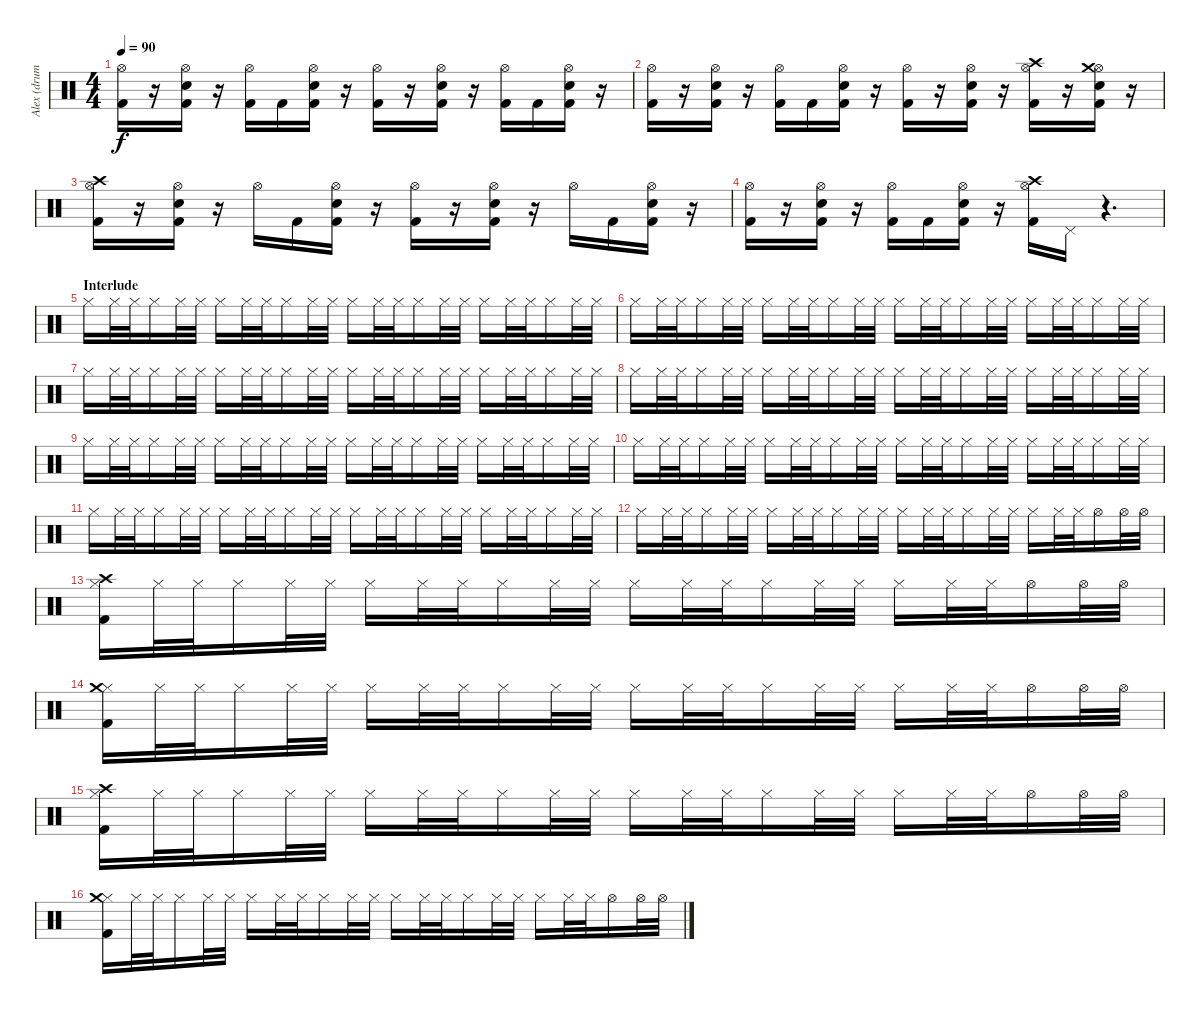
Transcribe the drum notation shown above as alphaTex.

\track ("Alex (drums)" "Alex (drum") {instrument percussion}
\staff {score}
\articulation defaults
\ts (4 4)
\tempo 90
\clef neutral
\ks c
("Hi-Hat (open)" "Kick (hit) 2").16{dy f} r.16 ("Hi-Hat (open)" "Snare (hit) 2" "Kick (hit) 2").16 r.16 ("Hi-Hat (open)" "Kick (hit) 2").16 "Kick (hit) 2".16 ("Hi-Hat (open)" "Snare (hit) 2" "Kick (hit) 2").16 r.16 ("Hi-Hat (open)" "Kick (hit) 2").16 r.16 ("Hi-Hat (open)" "Snare (hit) 2" "Kick (hit) 2").16 r.16 ("Hi-Hat (open)" "Kick (hit) 2").16 "Kick (hit) 2".16 ("Hi-Hat (open)" "Snare (hit) 2" "Kick (hit) 2").16 r.16 |
("Hi-Hat (open)" "Kick (hit) 2").16 r.16 ("Hi-Hat (open)" "Snare (hit) 2" "Kick (hit) 2").16 r.16 ("Hi-Hat (open)" "Kick (hit) 2").16 "Kick (hit) 2".16 ("Hi-Hat (open)" "Snare (hit) 2" "Kick (hit) 2").16 r.16 ("Hi-Hat (open)" "Kick (hit) 2").16 r.16 ("Hi-Hat (open)" "Snare (hit) 2" "Kick (hit) 2").16 r.16 ("Hi-Hat (open)" "Kick (hit) 2" "Crash high (hit)").16 r.16 ("Hi-Hat (open)" "Snare (hit) 2" "Kick (hit) 2" "Crash medium (hit)").16 r.16 |
("Hi-Hat (open)" "Kick (hit) 2" "Crash high (hit)").16 r.16 ("Hi-Hat (open)" "Snare (hit) 2" "Kick (hit) 2").16 r.16 "Hi-Hat (open)".16 "Kick (hit) 2".16 ("Hi-Hat (open)" "Snare (hit) 2" "Kick (hit) 2").16 r.16 ("Hi-Hat (open)" "Kick (hit) 2").16 r.16 ("Hi-Hat (open)" "Snare (hit) 2" "Kick (hit) 2").16 r.16 "Hi-Hat (open)".16 "Kick (hit) 2".16 ("Hi-Hat (open)" "Snare (hit) 2" "Kick (hit) 2").16 r.16 |
("Hi-Hat (open)" "Kick (hit) 2").16 r.16 ("Hi-Hat (open)" "Snare (hit) 2" "Kick (hit) 2").16 r.16 ("Hi-Hat (open)" "Kick (hit) 2").16 "Kick (hit) 2".16 ("Hi-Hat (open)" "Snare (hit) 2" "Kick (hit) 2").16 r.16 ("Hi-Hat (open)" "Kick (hit) 2" "Crash high (hit)").16 "Pedal Hi-Hat (hit)".16 r.4{d} |
\section ("" "Interlude")
"Hi-Hat (closed)".16 "Hi-Hat (closed)".32 "Hi-Hat (closed)".32 "Hi-Hat (closed)".16 "Hi-Hat (closed)".32 "Hi-Hat (closed)".32 "Hi-Hat (closed)".16 "Hi-Hat (closed)".32 "Hi-Hat (closed)".32 "Hi-Hat (closed)".16 "Hi-Hat (closed)".32 "Hi-Hat (closed)".32 "Hi-Hat (closed)".16 "Hi-Hat (closed)".32 "Hi-Hat (closed)".32 "Hi-Hat (closed)".16 "Hi-Hat (closed)".32 "Hi-Hat (closed)".32 "Hi-Hat (closed)".16 "Hi-Hat (closed)".32 "Hi-Hat (closed)".32 "Hi-Hat (closed)".16 "Hi-Hat (closed)".32 "Hi-Hat (closed)".32 |
"Hi-Hat (closed)".16 "Hi-Hat (closed)".32 "Hi-Hat (closed)".32 "Hi-Hat (closed)".16 "Hi-Hat (closed)".32 "Hi-Hat (closed)".32 "Hi-Hat (closed)".16 "Hi-Hat (closed)".32 "Hi-Hat (closed)".32 "Hi-Hat (closed)".16 "Hi-Hat (closed)".32 "Hi-Hat (closed)".32 "Hi-Hat (closed)".16 "Hi-Hat (closed)".32 "Hi-Hat (closed)".32 "Hi-Hat (closed)".16 "Hi-Hat (closed)".32 "Hi-Hat (closed)".32 "Hi-Hat (closed)".16 "Hi-Hat (closed)".32 "Hi-Hat (closed)".32 "Hi-Hat (closed)".16 "Hi-Hat (closed)".32 "Hi-Hat (closed)".32 |
"Hi-Hat (closed)".16 "Hi-Hat (closed)".32 "Hi-Hat (closed)".32 "Hi-Hat (closed)".16 "Hi-Hat (closed)".32 "Hi-Hat (closed)".32 "Hi-Hat (closed)".16 "Hi-Hat (closed)".32 "Hi-Hat (closed)".32 "Hi-Hat (closed)".16 "Hi-Hat (closed)".32 "Hi-Hat (closed)".32 "Hi-Hat (closed)".16 "Hi-Hat (closed)".32 "Hi-Hat (closed)".32 "Hi-Hat (closed)".16 "Hi-Hat (closed)".32 "Hi-Hat (closed)".32 "Hi-Hat (closed)".16 "Hi-Hat (closed)".32 "Hi-Hat (closed)".32 "Hi-Hat (closed)".16 "Hi-Hat (closed)".32 "Hi-Hat (closed)".32 |
"Hi-Hat (closed)".16 "Hi-Hat (closed)".32 "Hi-Hat (closed)".32 "Hi-Hat (closed)".16 "Hi-Hat (closed)".32 "Hi-Hat (closed)".32 "Hi-Hat (closed)".16 "Hi-Hat (closed)".32 "Hi-Hat (closed)".32 "Hi-Hat (closed)".16 "Hi-Hat (closed)".32 "Hi-Hat (closed)".32 "Hi-Hat (closed)".16 "Hi-Hat (closed)".32 "Hi-Hat (closed)".32 "Hi-Hat (closed)".16 "Hi-Hat (closed)".32 "Hi-Hat (closed)".32 "Hi-Hat (closed)".16 "Hi-Hat (closed)".32 "Hi-Hat (closed)".32 "Hi-Hat (closed)".16 "Hi-Hat (closed)".32 "Hi-Hat (closed)".32 |
"Hi-Hat (closed)".16 "Hi-Hat (closed)".32 "Hi-Hat (closed)".32 "Hi-Hat (closed)".16 "Hi-Hat (closed)".32 "Hi-Hat (closed)".32 "Hi-Hat (closed)".16 "Hi-Hat (closed)".32 "Hi-Hat (closed)".32 "Hi-Hat (closed)".16 "Hi-Hat (closed)".32 "Hi-Hat (closed)".32 "Hi-Hat (closed)".16 "Hi-Hat (closed)".32 "Hi-Hat (closed)".32 "Hi-Hat (closed)".16 "Hi-Hat (closed)".32 "Hi-Hat (closed)".32 "Hi-Hat (closed)".16 "Hi-Hat (closed)".32 "Hi-Hat (closed)".32 "Hi-Hat (closed)".16 "Hi-Hat (closed)".32 "Hi-Hat (closed)".32 |
"Hi-Hat (closed)".16 "Hi-Hat (closed)".32 "Hi-Hat (closed)".32 "Hi-Hat (closed)".16 "Hi-Hat (closed)".32 "Hi-Hat (closed)".32 "Hi-Hat (closed)".16 "Hi-Hat (closed)".32 "Hi-Hat (closed)".32 "Hi-Hat (closed)".16 "Hi-Hat (closed)".32 "Hi-Hat (closed)".32 "Hi-Hat (closed)".16 "Hi-Hat (closed)".32 "Hi-Hat (closed)".32 "Hi-Hat (closed)".16 "Hi-Hat (closed)".32 "Hi-Hat (closed)".32 "Hi-Hat (closed)".16 "Hi-Hat (closed)".32 "Hi-Hat (closed)".32 "Hi-Hat (closed)".16 "Hi-Hat (closed)".32 "Hi-Hat (closed)".32 |
"Hi-Hat (closed)".16 "Hi-Hat (closed)".32 "Hi-Hat (closed)".32 "Hi-Hat (closed)".16 "Hi-Hat (closed)".32 "Hi-Hat (closed)".32 "Hi-Hat (closed)".16 "Hi-Hat (closed)".32 "Hi-Hat (closed)".32 "Hi-Hat (closed)".16 "Hi-Hat (closed)".32 "Hi-Hat (closed)".32 "Hi-Hat (closed)".16 "Hi-Hat (closed)".32 "Hi-Hat (closed)".32 "Hi-Hat (closed)".16 "Hi-Hat (closed)".32 "Hi-Hat (closed)".32 "Hi-Hat (closed)".16 "Hi-Hat (closed)".32 "Hi-Hat (closed)".32 "Hi-Hat (closed)".16 "Hi-Hat (closed)".32 "Hi-Hat (closed)".32 |
"Hi-Hat (closed)".16 "Hi-Hat (closed)".32 "Hi-Hat (closed)".32 "Hi-Hat (closed)".16 "Hi-Hat (closed)".32 "Hi-Hat (closed)".32 "Hi-Hat (closed)".16 "Hi-Hat (closed)".32 "Hi-Hat (closed)".32 "Hi-Hat (closed)".16 "Hi-Hat (closed)".32 "Hi-Hat (closed)".32 "Hi-Hat (closed)".16 "Hi-Hat (closed)".32 "Hi-Hat (closed)".32 "Hi-Hat (closed)".16 "Hi-Hat (closed)".32 "Hi-Hat (closed)".32 "Hi-Hat (closed)".16 "Hi-Hat (closed)".32 "Hi-Hat (closed)".32 "Hi-Hat (open)".16 "Hi-Hat (open)".32 "Hi-Hat (open)".32 |
("Hi-Hat (closed)" "Kick (hit) 2" "Crash high (hit)").16 "Hi-Hat (closed)".32 "Hi-Hat (closed)".32 "Hi-Hat (closed)".16 "Hi-Hat (closed)".32 "Hi-Hat (closed)".32 "Hi-Hat (closed)".16 "Hi-Hat (closed)".32 "Hi-Hat (closed)".32 "Hi-Hat (closed)".16 "Hi-Hat (closed)".32 "Hi-Hat (closed)".32 "Hi-Hat (closed)".16 "Hi-Hat (closed)".32 "Hi-Hat (closed)".32 "Hi-Hat (closed)".16 "Hi-Hat (closed)".32 "Hi-Hat (closed)".32 "Hi-Hat (closed)".16 "Hi-Hat (closed)".32 "Hi-Hat (closed)".32 "Hi-Hat (open)".16 "Hi-Hat (open)".32 "Hi-Hat (open)".32 |
("Hi-Hat (closed)" "Kick (hit) 2" "Crash medium (hit)").16 "Hi-Hat (closed)".32 "Hi-Hat (closed)".32 "Hi-Hat (closed)".16 "Hi-Hat (closed)".32 "Hi-Hat (closed)".32 "Hi-Hat (closed)".16 "Hi-Hat (closed)".32 "Hi-Hat (closed)".32 "Hi-Hat (closed)".16 "Hi-Hat (closed)".32 "Hi-Hat (closed)".32 "Hi-Hat (closed)".16 "Hi-Hat (closed)".32 "Hi-Hat (closed)".32 "Hi-Hat (closed)".16 "Hi-Hat (closed)".32 "Hi-Hat (closed)".32 "Hi-Hat (closed)".16 "Hi-Hat (closed)".32 "Hi-Hat (closed)".32 "Hi-Hat (open)".16 "Hi-Hat (open)".32 "Hi-Hat (open)".32 |
("Hi-Hat (closed)" "Kick (hit) 2" "Crash high (hit)").16 "Hi-Hat (closed)".32 "Hi-Hat (closed)".32 "Hi-Hat (closed)".16 "Hi-Hat (closed)".32 "Hi-Hat (closed)".32 "Hi-Hat (closed)".16 "Hi-Hat (closed)".32 "Hi-Hat (closed)".32 "Hi-Hat (closed)".16 "Hi-Hat (closed)".32 "Hi-Hat (closed)".32 "Hi-Hat (closed)".16 "Hi-Hat (closed)".32 "Hi-Hat (closed)".32 "Hi-Hat (closed)".16 "Hi-Hat (closed)".32 "Hi-Hat (closed)".32 "Hi-Hat (closed)".16 "Hi-Hat (closed)".32 "Hi-Hat (closed)".32 "Hi-Hat (open)".16 "Hi-Hat (open)".32 "Hi-Hat (open)".32 |
("Hi-Hat (closed)" "Kick (hit) 2" "Crash medium (hit)").16 "Hi-Hat (closed)".32 "Hi-Hat (closed)".32 "Hi-Hat (closed)".16 "Hi-Hat (closed)".32 "Hi-Hat (closed)".32 "Hi-Hat (closed)".16 "Hi-Hat (closed)".32 "Hi-Hat (closed)".32 "Hi-Hat (closed)".16 "Hi-Hat (closed)".32 "Hi-Hat (closed)".32 "Hi-Hat (closed)".16 "Hi-Hat (closed)".32 "Hi-Hat (closed)".32 "Hi-Hat (closed)".16 "Hi-Hat (closed)".32 "Hi-Hat (closed)".32 "Hi-Hat (closed)".16 "Hi-Hat (closed)".32 "Hi-Hat (closed)".32 "Hi-Hat (open)".16 "Hi-Hat (open)".32 "Hi-Hat (open)".32
